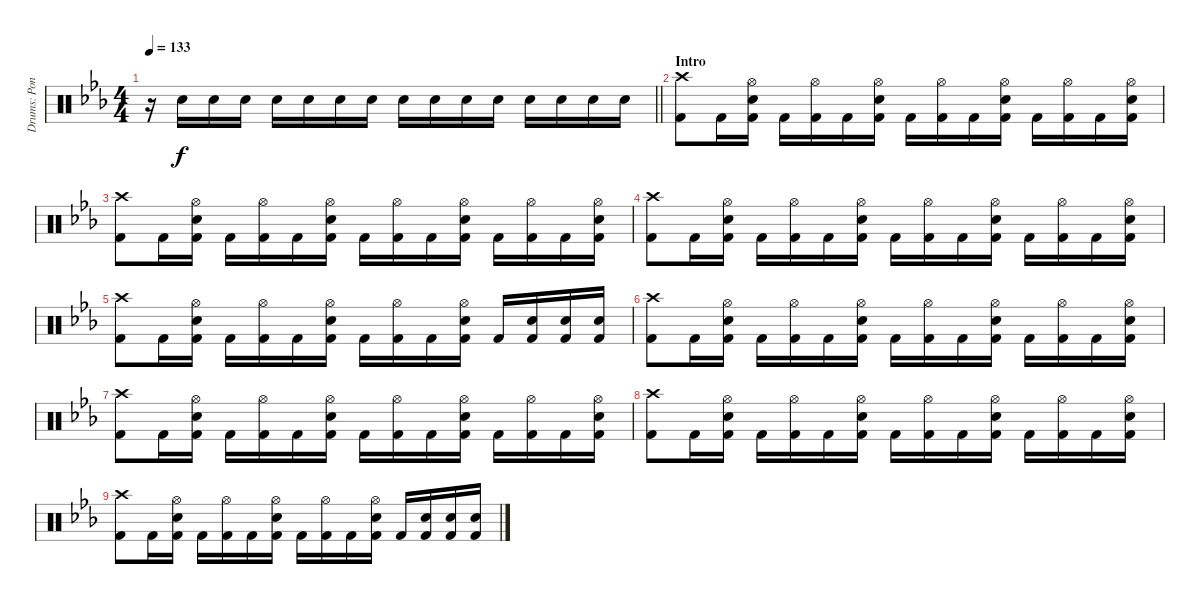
\track ("Drums: Pontus Jansson" "Drums: Pon") {instrument percussion}
\staff {score}
\articulation defaults
\ts (4 4)
\tempo 133
\clef neutral
\barLineRight lightlight
\ks cminor
r.16{dy f} "Electric Snare (hit)".16 "Electric Snare (hit)".16 "Electric Snare (hit)".16 "Electric Snare (hit)".16 "Electric Snare (hit)".16 "Electric Snare (hit)".16 "Electric Snare (hit)".16 "Electric Snare (hit)".16 "Electric Snare (hit)".16 "Electric Snare (hit)".16 "Electric Snare (hit)".16 "Electric Snare (hit)".16 "Electric Snare (hit)".16 "Electric Snare (hit)".16 "Electric Snare (hit)".16 |
\section ("" "Intro")
("Crash high (hit)" "Kick (hit) 2").8 "Kick (hit) 2".16 ("Hi-Hat (open)" "Electric Snare (hit)" "Kick (hit) 2").16 "Kick (hit) 2".16 ("Hi-Hat (open)" "Kick (hit) 2").16 "Kick (hit) 2".16 ("Hi-Hat (open)" "Electric Snare (hit)" "Kick (hit) 2").16 "Kick (hit) 2".16 ("Hi-Hat (open)" "Kick (hit) 2").16 "Kick (hit) 2".16 ("Hi-Hat (open)" "Electric Snare (hit)" "Kick (hit) 2").16 "Kick (hit) 2".16 ("Hi-Hat (open)" "Kick (hit) 2").16 "Kick (hit) 2".16 ("Hi-Hat (open)" "Electric Snare (hit)" "Kick (hit) 2").16 |
("Crash high (hit)" "Kick (hit) 2").8 "Kick (hit) 2".16 ("Hi-Hat (open)" "Electric Snare (hit)" "Kick (hit) 2").16 "Kick (hit) 2".16 ("Hi-Hat (open)" "Kick (hit) 2").16 "Kick (hit) 2".16 ("Hi-Hat (open)" "Electric Snare (hit)" "Kick (hit) 2").16 "Kick (hit) 2".16 ("Hi-Hat (open)" "Kick (hit) 2").16 "Kick (hit) 2".16 ("Hi-Hat (open)" "Electric Snare (hit)" "Kick (hit) 2").16 "Kick (hit) 2".16 ("Hi-Hat (open)" "Kick (hit) 2").16 "Kick (hit) 2".16 ("Hi-Hat (open)" "Electric Snare (hit)" "Kick (hit) 2").16 |
("Crash high (hit)" "Kick (hit) 2").8 "Kick (hit) 2".16 ("Hi-Hat (open)" "Electric Snare (hit)" "Kick (hit) 2").16 "Kick (hit) 2".16 ("Hi-Hat (open)" "Kick (hit) 2").16 "Kick (hit) 2".16 ("Hi-Hat (open)" "Electric Snare (hit)" "Kick (hit) 2").16 "Kick (hit) 2".16 ("Hi-Hat (open)" "Kick (hit) 2").16 "Kick (hit) 2".16 ("Hi-Hat (open)" "Electric Snare (hit)" "Kick (hit) 2").16 "Kick (hit) 2".16 ("Hi-Hat (open)" "Kick (hit) 2").16 "Kick (hit) 2".16 ("Hi-Hat (open)" "Electric Snare (hit)" "Kick (hit) 2").16 |
("Crash high (hit)" "Kick (hit) 2").8 "Kick (hit) 2".16 ("Hi-Hat (open)" "Electric Snare (hit)" "Kick (hit) 2").16 "Kick (hit) 2".16 ("Hi-Hat (open)" "Kick (hit) 2").16 "Kick (hit) 2".16 ("Hi-Hat (open)" "Electric Snare (hit)" "Kick (hit) 2").16 "Kick (hit) 2".16 ("Hi-Hat (open)" "Kick (hit) 2").16 "Kick (hit) 2".16 ("Hi-Hat (open)" "Electric Snare (hit)" "Kick (hit) 2").16 "Kick (hit) 2".16 ("Electric Snare (hit)" "Kick (hit) 2").16 ("Electric Snare (hit)" "Kick (hit) 2").16 ("Electric Snare (hit)" "Kick (hit) 2").16 |
("Crash high (hit)" "Kick (hit) 2").8 "Kick (hit) 2".16 ("Hi-Hat (open)" "Electric Snare (hit)" "Kick (hit) 2").16 "Kick (hit) 2".16 ("Hi-Hat (open)" "Kick (hit) 2").16 "Kick (hit) 2".16 ("Hi-Hat (open)" "Electric Snare (hit)" "Kick (hit) 2").16 "Kick (hit) 2".16 ("Hi-Hat (open)" "Kick (hit) 2").16 "Kick (hit) 2".16 ("Hi-Hat (open)" "Electric Snare (hit)" "Kick (hit) 2").16 "Kick (hit) 2".16 ("Hi-Hat (open)" "Kick (hit) 2").16 "Kick (hit) 2".16 ("Hi-Hat (open)" "Electric Snare (hit)" "Kick (hit) 2").16 |
("Crash high (hit)" "Kick (hit) 2").8 "Kick (hit) 2".16 ("Hi-Hat (open)" "Electric Snare (hit)" "Kick (hit) 2").16 "Kick (hit) 2".16 ("Hi-Hat (open)" "Kick (hit) 2").16 "Kick (hit) 2".16 ("Hi-Hat (open)" "Electric Snare (hit)" "Kick (hit) 2").16 "Kick (hit) 2".16 ("Hi-Hat (open)" "Kick (hit) 2").16 "Kick (hit) 2".16 ("Hi-Hat (open)" "Electric Snare (hit)" "Kick (hit) 2").16 "Kick (hit) 2".16 ("Hi-Hat (open)" "Kick (hit) 2").16 "Kick (hit) 2".16 ("Hi-Hat (open)" "Electric Snare (hit)" "Kick (hit) 2").16 |
("Crash high (hit)" "Kick (hit) 2").8 "Kick (hit) 2".16 ("Hi-Hat (open)" "Electric Snare (hit)" "Kick (hit) 2").16 "Kick (hit) 2".16 ("Hi-Hat (open)" "Kick (hit) 2").16 "Kick (hit) 2".16 ("Hi-Hat (open)" "Electric Snare (hit)" "Kick (hit) 2").16 "Kick (hit) 2".16 ("Hi-Hat (open)" "Kick (hit) 2").16 "Kick (hit) 2".16 ("Hi-Hat (open)" "Electric Snare (hit)" "Kick (hit) 2").16 "Kick (hit) 2".16 ("Hi-Hat (open)" "Kick (hit) 2").16 "Kick (hit) 2".16 ("Hi-Hat (open)" "Electric Snare (hit)" "Kick (hit) 2").16 |
("Crash high (hit)" "Kick (hit) 2").8 "Kick (hit) 2".16 ("Hi-Hat (open)" "Electric Snare (hit)" "Kick (hit) 2").16 "Kick (hit) 2".16 ("Hi-Hat (open)" "Kick (hit) 2").16 "Kick (hit) 2".16 ("Hi-Hat (open)" "Electric Snare (hit)" "Kick (hit) 2").16 "Kick (hit) 2".16 ("Hi-Hat (open)" "Kick (hit) 2").16 "Kick (hit) 2".16 ("Hi-Hat (open)" "Electric Snare (hit)" "Kick (hit) 2").16 "Kick (hit) 2".16 ("Electric Snare (hit)" "Kick (hit) 2").16 ("Electric Snare (hit)" "Kick (hit) 2").16 ("Electric Snare (hit)" "Kick (hit) 2").16
